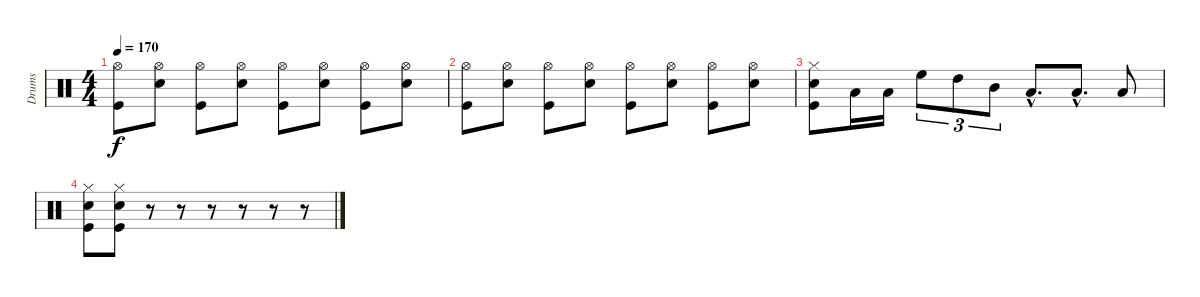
\track ("Drums" "Drums") {instrument percussion}
\staff {score}
\articulation defaults
\ts (4 4)
\tempo 170
\clef neutral
\ks c
("Hi-Hat (open)" "Kick (hit)").8{dy f} ("Hi-Hat (open)" "Snare (hit) 2").8 ("Hi-Hat (open)" "Kick (hit)").8 ("Hi-Hat (open)" "Snare (hit) 2").8 ("Hi-Hat (open)" "Kick (hit)").8 ("Hi-Hat (open)" "Snare (hit) 2").8 ("Hi-Hat (open)" "Kick (hit)").8 ("Hi-Hat (open)" "Snare (hit) 2").8 |
("Hi-Hat (open)" "Kick (hit)").8 ("Hi-Hat (open)" "Snare (hit) 2").8 ("Hi-Hat (open)" "Kick (hit)").8 ("Hi-Hat (open)" "Snare (hit) 2").8 ("Hi-Hat (open)" "Kick (hit)").8 ("Hi-Hat (open)" "Snare (hit) 2").8 ("Hi-Hat (open)" "Kick (hit)").8 ("Hi-Hat (open)" "Snare (hit) 2").8 |
("Hi-Hat (closed)" "Snare (hit) 2" "Kick (hit)").8 "Low Floor Tom (hit)".16 "Low Floor Tom (hit)".16 "High Floor Tom (hit)".8{tu (3 2)} "High Tom (hit)".8{tu (3 2)} "Mid Tom (hit)".8{tu (3 2)} "Low Floor Tom (hit)"{hac}.8{d} "Low Floor Tom (hit)"{hac}.8{d} "Low Floor Tom (hit)".8 |
("Hi-Hat (closed)" "Snare (hit) 2" "Kick (hit)").8 ("Hi-Hat (closed)" "Snare (hit) 2" "Kick (hit)").8 r.8 r.8 r.8 r.8 r.8 r.8
